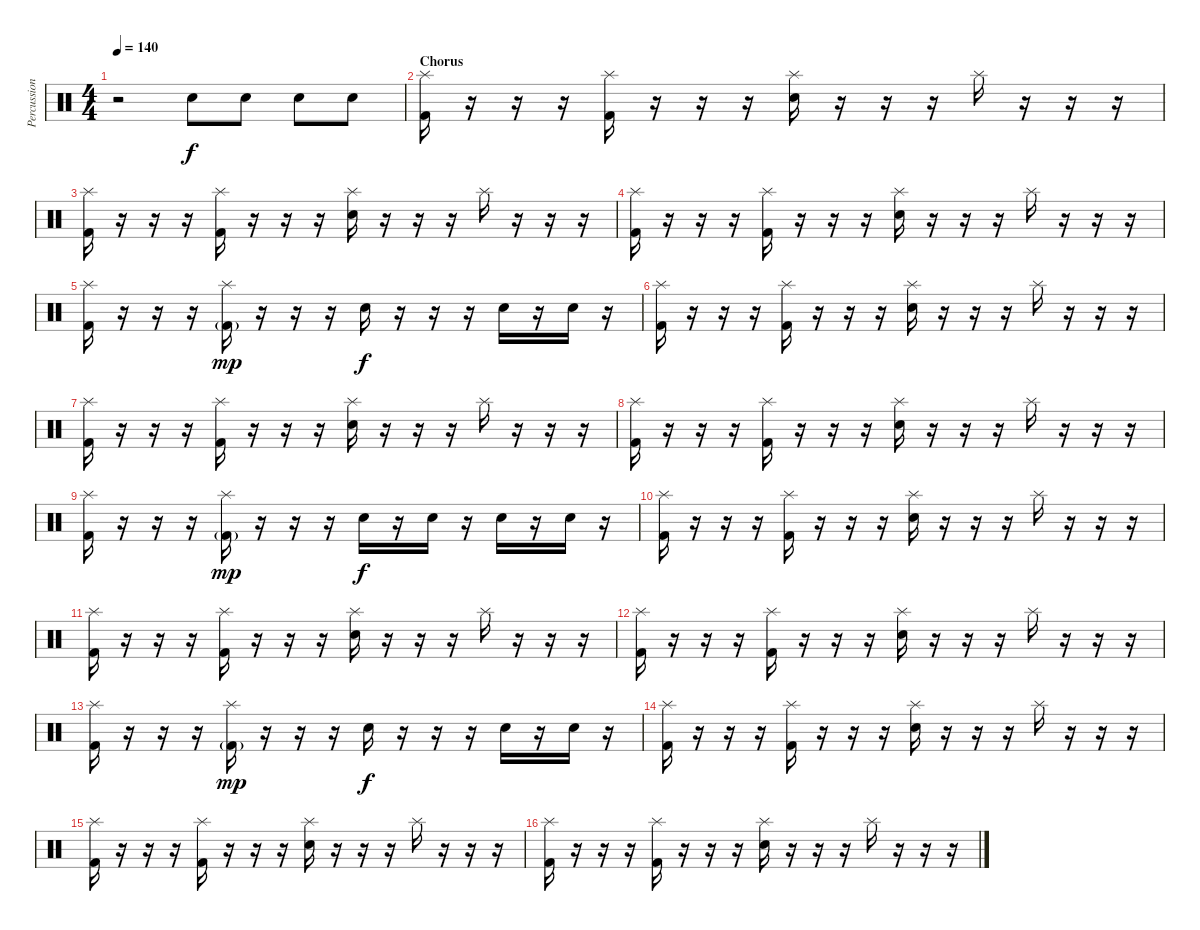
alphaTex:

\track ("Percussion" "Percussion") {instrument percussion}
\staff {score}
\articulation defaults
\ts (4 4)
\tempo 140
\clef neutral
\ks c
r.2{dy f} "Snare (hit) 2".8 "Snare (hit) 2".8 "Snare (hit) 2".8 "Snare (hit) 2".8 |
\section ("" "Chorus")
("Kick (hit) 2" "Splash (hit)").16 r.16 r.16 r.16 ("Kick (hit) 2" "Splash (hit)").16 r.16 r.16 r.16 ("Snare (hit) 2" "Splash (hit)").16 r.16 r.16 r.16 "Splash (hit)".16 r.16 r.16 r.16 |
("Kick (hit) 2" "Splash (hit)").16 r.16 r.16 r.16 ("Kick (hit) 2" "Splash (hit)").16 r.16 r.16 r.16 ("Snare (hit) 2" "Splash (hit)").16 r.16 r.16 r.16 "Splash (hit)".16 r.16 r.16 r.16 |
("Kick (hit) 2" "Splash (hit)").16 r.16 r.16 r.16 ("Kick (hit) 2" "Splash (hit)").16 r.16 r.16 r.16 ("Snare (hit) 2" "Splash (hit)").16 r.16 r.16 r.16 "Splash (hit)".16 r.16 r.16 r.16 |
("Kick (hit) 2" "Splash (hit)").16 r.16 r.16 r.16 ("Kick (hit) 2"{g} "Splash (hit)").16{dy mp} r.16 r.16 r.16 "Snare (hit) 2".16{dy f} r.16 r.16 r.16 "Snare (hit) 2".16 r.16 "Snare (hit) 2".16 r.16 |
("Kick (hit) 2" "Splash (hit)").16 r.16 r.16 r.16 ("Kick (hit) 2" "Splash (hit)").16 r.16 r.16 r.16 ("Snare (hit) 2" "Splash (hit)").16 r.16 r.16 r.16 "Splash (hit)".16 r.16 r.16 r.16 |
("Kick (hit) 2" "Splash (hit)").16 r.16 r.16 r.16 ("Kick (hit) 2" "Splash (hit)").16 r.16 r.16 r.16 ("Snare (hit) 2" "Splash (hit)").16 r.16 r.16 r.16 "Splash (hit)".16 r.16 r.16 r.16 |
("Kick (hit) 2" "Splash (hit)").16 r.16 r.16 r.16 ("Kick (hit) 2" "Splash (hit)").16 r.16 r.16 r.16 ("Snare (hit) 2" "Splash (hit)").16 r.16 r.16 r.16 "Splash (hit)".16 r.16 r.16 r.16 |
("Kick (hit) 2" "Splash (hit)").16 r.16 r.16 r.16 ("Kick (hit) 2"{g} "Splash (hit)").16{dy mp} r.16 r.16 r.16 "Snare (hit) 2".16{dy f} r.16 "Snare (hit) 2".16 r.16 "Snare (hit) 2".16 r.16 "Snare (hit) 2".16 r.16 |
("Kick (hit) 2" "Splash (hit)").16 r.16 r.16 r.16 ("Kick (hit) 2" "Splash (hit)").16 r.16 r.16 r.16 ("Snare (hit) 2" "Splash (hit)").16 r.16 r.16 r.16 "Splash (hit)".16 r.16 r.16 r.16 |
("Kick (hit) 2" "Splash (hit)").16 r.16 r.16 r.16 ("Kick (hit) 2" "Splash (hit)").16 r.16 r.16 r.16 ("Snare (hit) 2" "Splash (hit)").16 r.16 r.16 r.16 "Splash (hit)".16 r.16 r.16 r.16 |
("Kick (hit) 2" "Splash (hit)").16 r.16 r.16 r.16 ("Kick (hit) 2" "Splash (hit)").16 r.16 r.16 r.16 ("Snare (hit) 2" "Splash (hit)").16 r.16 r.16 r.16 "Splash (hit)".16 r.16 r.16 r.16 |
("Kick (hit) 2" "Splash (hit)").16 r.16 r.16 r.16 ("Kick (hit) 2"{g} "Splash (hit)").16{dy mp} r.16 r.16 r.16 "Snare (hit) 2".16{dy f} r.16 r.16 r.16 "Snare (hit) 2".16 r.16 "Snare (hit) 2".16 r.16 |
("Kick (hit) 2" "Splash (hit)").16 r.16 r.16 r.16 ("Kick (hit) 2" "Splash (hit)").16 r.16 r.16 r.16 ("Snare (hit) 2" "Splash (hit)").16 r.16 r.16 r.16 "Splash (hit)".16 r.16 r.16 r.16 |
("Kick (hit) 2" "Splash (hit)").16 r.16 r.16 r.16 ("Kick (hit) 2" "Splash (hit)").16 r.16 r.16 r.16 ("Snare (hit) 2" "Splash (hit)").16 r.16 r.16 r.16 "Splash (hit)".16 r.16 r.16 r.16 |
("Kick (hit) 2" "Splash (hit)").16 r.16 r.16 r.16 ("Kick (hit) 2" "Splash (hit)").16 r.16 r.16 r.16 ("Snare (hit) 2" "Splash (hit)").16 r.16 r.16 r.16 "Splash (hit)".16 r.16 r.16 r.16
